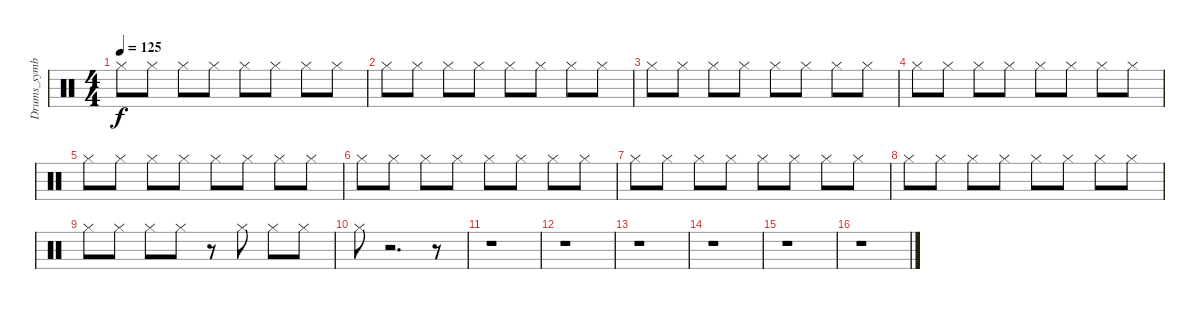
\track ("Drums_symbal" "Drums_symb") {instrument percussion}
\staff {score}
\articulation defaults
\ts (4 4)
\tempo 125
\clef neutral
\ks c "Hi-Hat (closed)".8{dy f} "Hi-Hat (closed)".8 "Hi-Hat (closed)".8 "Hi-Hat (closed)".8 "Hi-Hat (closed)".8 "Hi-Hat (closed)".8 "Hi-Hat (closed)".8 "Hi-Hat (closed)".8
|
"Hi-Hat (closed)".8 "Hi-Hat (closed)".8 "Hi-Hat (closed)".8 "Hi-Hat (closed)".8 "Hi-Hat (closed)".8 "Hi-Hat (closed)".8 "Hi-Hat (closed)".8 "Hi-Hat (closed)".8 |
"Hi-Hat (closed)".8 "Hi-Hat (closed)".8 "Hi-Hat (closed)".8 "Hi-Hat (closed)".8 "Hi-Hat (closed)".8 "Hi-Hat (closed)".8 "Hi-Hat (closed)".8 "Hi-Hat (closed)".8 |
"Hi-Hat (closed)".8 "Hi-Hat (closed)".8 "Hi-Hat (closed)".8 "Hi-Hat (closed)".8 "Hi-Hat (closed)".8 "Hi-Hat (closed)".8 "Hi-Hat (closed)".8 "Hi-Hat (closed)".8 |
"Hi-Hat (closed)".8 "Hi-Hat (closed)".8 "Hi-Hat (closed)".8 "Hi-Hat (closed)".8 "Hi-Hat (closed)".8 "Hi-Hat (closed)".8 "Hi-Hat (closed)".8 "Hi-Hat (closed)".8 |
"Hi-Hat (closed)".8 "Hi-Hat (closed)".8 "Hi-Hat (closed)".8 "Hi-Hat (closed)".8 "Hi-Hat (closed)".8 "Hi-Hat (closed)".8 "Hi-Hat (closed)".8 "Hi-Hat (closed)".8 |
"Hi-Hat (closed)".8 "Hi-Hat (closed)".8 "Hi-Hat (closed)".8 "Hi-Hat (closed)".8 "Hi-Hat (closed)".8 "Hi-Hat (closed)".8 "Hi-Hat (closed)".8 "Hi-Hat (closed)".8 |
"Hi-Hat (closed)".8 "Hi-Hat (closed)".8 "Hi-Hat (closed)".8 "Hi-Hat (closed)".8 "Hi-Hat (closed)".8 "Hi-Hat (closed)".8 "Hi-Hat (closed)".8 "Hi-Hat (closed)".8 |
"Hi-Hat (closed)".8 "Hi-Hat (closed)".8 "Hi-Hat (closed)".8 "Hi-Hat (closed)".8 r.8 "Hi-Hat (closed)".8 "Hi-Hat (closed)".8 "Hi-Hat (closed)".8 |
"Hi-Hat (closed)".8 r.2{d} r.8 |
r.1 |
r.1 |
r.1 |
r.1 |
r.1 |
r.1
